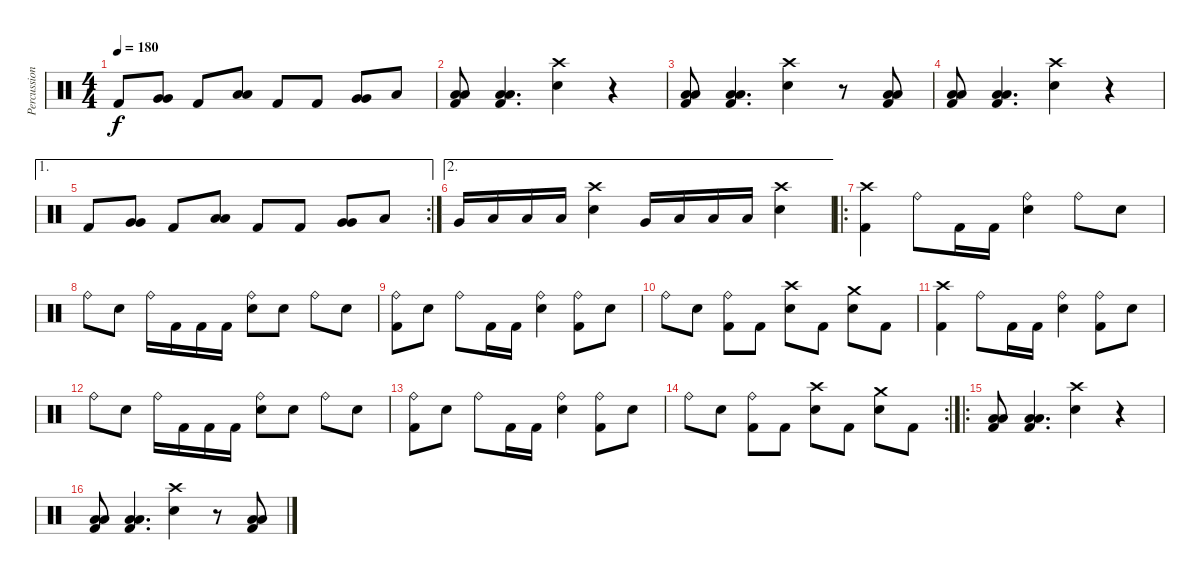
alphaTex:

\track ("Percussions" "Percussion") {instrument percussion}
\staff {score}
\articulation defaults
\ts (4 4)
\tempo 180
\clef neutral
\ks c "Kick (hit) 2".8{dy f}
("Very Low Tom (hit)" "Very Low Tom (hit)").8{bd 240} "Kick (hit) 2".8 ("Low Floor Tom (hit)" "Low Floor Tom (hit)").8{bd 240} "Kick (hit) 2".8 "Kick (hit) 2".8 ("Very Low Tom (hit)" "Very Low Tom (hit)").8{bd 240} "Low Floor Tom (hit)".8 |
("Low Floor Tom (hit)" "Low Floor Tom (hit)" "Kick (hit) 2").8 ("Low Floor Tom (hit)" "Low Floor Tom (hit)" "Kick (hit) 2").4{d} ("Crash high (hit)" "Snare (hit) 2").4 r.4 |
("Low Floor Tom (hit)" "Low Floor Tom (hit)" "Kick (hit) 2").8 ("Low Floor Tom (hit)" "Low Floor Tom (hit)" "Kick (hit) 2").4{d} ("Crash high (hit)" "Snare (hit) 2").4 r.8 ("Low Floor Tom (hit)" "Low Floor Tom (hit)" "Kick (hit) 2").8 |
("Low Floor Tom (hit)" "Low Floor Tom (hit)" "Kick (hit) 2").8 ("Low Floor Tom (hit)" "Low Floor Tom (hit)" "Kick (hit) 2").4{d} ("Crash high (hit)" "Snare (hit) 2").4 r.4 |
\ae 1
\rc 2 "Kick (hit) 2".8
("Very Low Tom (hit)" "Very Low Tom (hit)").8{bd 240} "Kick (hit) 2".8 ("Low Floor Tom (hit)" "Low Floor Tom (hit)").8{bd 240} "Kick (hit) 2".8 "Kick (hit) 2".8 ("Very Low Tom (hit)" "Very Low Tom (hit)").8{bd 240} "Low Floor Tom (hit)".8 |
\ae 2 "Very Low Tom (hit)".16 "Low Floor Tom (hit)".16 "Low Floor Tom (hit)".16 "Low Floor Tom (hit)".16
("Crash high (hit)" "Snare (hit) 2").4 "Very Low Tom (hit)".16 "Low Floor Tom (hit)".16 "Low Floor Tom (hit)".16 "Low Floor Tom (hit)".16 ("Crash high (hit)" "Snare (hit) 2").4 |
\ro
("Crash high (hit)" "Kick (hit) 2").4 "Ride (bell)".8 "Kick (hit) 2".16 "Kick (hit) 2".16 ("Ride (bell)" "Snare (hit) 2").4 "Ride (bell)".8 "Snare (hit) 2".8 |
"Ride (bell)".8 "Snare (hit) 2".8 "Ride (bell)".16 "Kick (hit) 2".16 "Kick (hit) 2".16 "Kick (hit) 2".16 ("Ride (bell)" "Snare (hit) 2").8 "Snare (hit) 2".8 "Ride (bell)".8 "Snare (hit) 2".8 |
("Ride (bell)" "Kick (hit) 2").8 "Snare (hit) 2".8 "Ride (bell)".8 "Kick (hit) 2".16 "Kick (hit) 2".16 ("Ride (bell)" "Snare (hit) 2").4 ("Ride (bell)" "Kick (hit) 2").8 "Snare (hit) 2".8 |
"Ride (bell)".8 "Snare (hit) 2".8 ("Ride (bell)" "Kick (hit) 2").8 "Kick (hit) 2".8 ("Crash high (hit)" "Snare (hit) 2").8 "Kick (hit) 2".8 ("Crash medium (hit)" "Snare (hit) 2").8 "Kick (hit) 2".8 |
("Crash high (hit)" "Kick (hit) 2").4 "Ride (bell)".8 "Kick (hit) 2".16 "Kick (hit) 2".16 ("Ride (bell)" "Snare (hit) 2").4 ("Ride (bell)" "Kick (hit) 2").8 "Snare (hit) 2".8 |
"Ride (bell)".8 "Snare (hit) 2".8 "Ride (bell)".16 "Kick (hit) 2".16 "Kick (hit) 2".16 "Kick (hit) 2".16 ("Ride (bell)" "Snare (hit) 2").8 "Snare (hit) 2".8 "Ride (bell)".8 "Snare (hit) 2".8 |
("Ride (bell)" "Kick (hit) 2").8 "Snare (hit) 2".8 "Ride (bell)".8 "Kick (hit) 2".16 "Kick (hit) 2".16 ("Ride (bell)" "Snare (hit) 2").4 ("Ride (bell)" "Kick (hit) 2").8 "Snare (hit) 2".8 |
\rc 2 "Ride (bell)".8 "Snare (hit) 2".8
("Ride (bell)" "Kick (hit) 2").8 "Kick (hit) 2".8 ("Crash high (hit)" "Snare (hit) 2").8 "Kick (hit) 2".8 ("Crash medium (hit)" "Snare (hit) 2").8 "Kick (hit) 2".8 |
\ro
("Low Floor Tom (hit)" "Low Floor Tom (hit)" "Kick (hit) 2").8 ("Low Floor Tom (hit)" "Low Floor Tom (hit)" "Kick (hit) 2").4{d} ("Crash high (hit)" "Snare (hit) 2").4 r.4 |
("Low Floor Tom (hit)" "Low Floor Tom (hit)" "Kick (hit) 2").8 ("Low Floor Tom (hit)" "Low Floor Tom (hit)" "Kick (hit) 2").4{d} ("Crash high (hit)" "Snare (hit) 2").4 r.8 ("Low Floor Tom (hit)" "Low Floor Tom (hit)" "Kick (hit) 2").8
